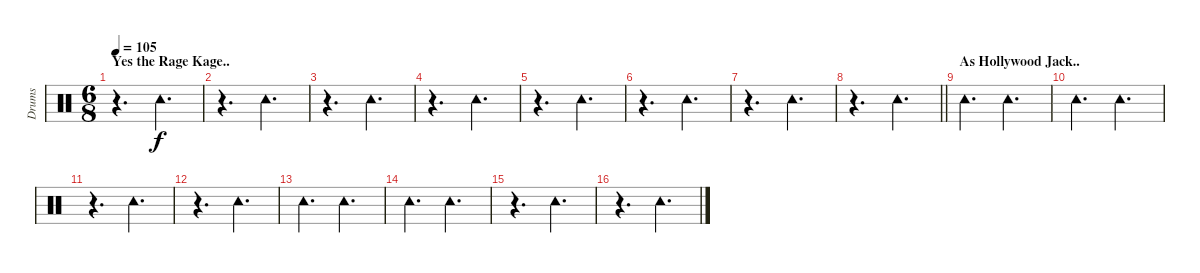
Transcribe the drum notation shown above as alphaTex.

\track ("Drums" "Drums") {instrument percussion}
\staff {score}
\articulation defaults
\ts (6 8)
\section ("" "Yes the Rage Kage..")
\tempo 105
\clef neutral
\ks c
r.4{d dy f} "Tambourine (hit)".4{d} |
r.4{d} "Tambourine (hit)".4{d} |
r.4{d} "Tambourine (hit)".4{d} |
r.4{d} "Tambourine (hit)".4{d} |
r.4{d} "Tambourine (hit)".4{d} |
r.4{d} "Tambourine (hit)".4{d} |
r.4{d} "Tambourine (hit)".4{d} |
\barLineRight lightlight
r.4{d} "Tambourine (hit)".4{d} |
\section ("" "As Hollywood Jack..")
"Tambourine (hit)".4{d} "Tambourine (hit)".4{d} |
"Tambourine (hit)".4{d} "Tambourine (hit)".4{d} |
r.4{d} "Tambourine (hit)".4{d} |
r.4{d} "Tambourine (hit)".4{d} |
"Tambourine (hit)".4{d} "Tambourine (hit)".4{d} |
"Tambourine (hit)".4{d} "Tambourine (hit)".4{d} |
r.4{d} "Tambourine (hit)".4{d} |
r.4{d} "Tambourine (hit)".4{d}
